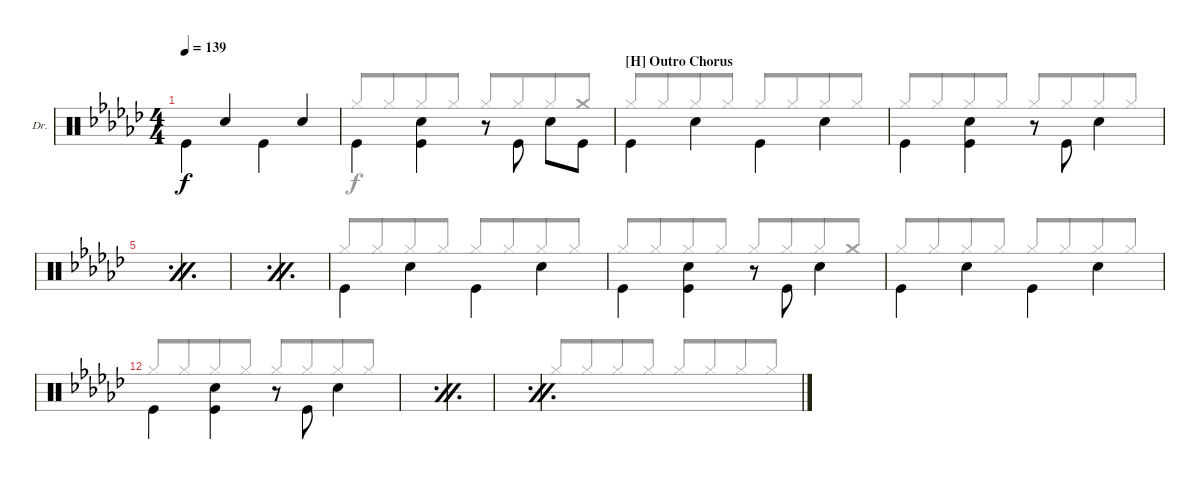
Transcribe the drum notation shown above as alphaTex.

\bracketExtendMode groupsimilarinstruments
\firstSystemTrackNameOrientation horizontal
\otherSystemsTrackNameOrientation horizontal
\defaultBarNumberDisplay FirstOfSystem
\track ("Drums" "Dr.") {instrument percussion}
\staff {score}
\articulation defaults
\voice
\ts (4 4)
\tempo 139
\clef neutral
\ks gb "Kick (hit)".4{dy f beam invert} "Snare (hit) 2".4{beam invert} "Kick (hit)".4{beam invert} "Snare (hit) 2".4{beam invert}
|
"Kick (hit)".4{beam invert} ("Snare (hit) 2" "Kick (hit)").4{beam invert} r.8 "Kick (hit)".8{beam invert} "Snare (hit) 2".8{beam invert} "Kick (hit)".8 |
\section ("H" "Outro Chorus")
"Kick (hit)".4{beam invert} "Snare (hit) 2".4{beam invert} "Kick (hit)".4{beam invert} "Snare (hit) 2".4{beam invert} |
"Kick (hit)".4{beam invert} ("Kick (hit)" "Snare (hit) 2").4{beam invert} r.8 "Kick (hit)".8{beam invert} "Snare (hit) 2".4{beam invert} |
\simile firstofdouble
|
\simile secondofdouble
|
\simile firstofdouble
|
\simile secondofdouble
|
\simile none "Kick (hit)".4{beam invert} "Snare (hit) 2".4{beam invert} "Kick (hit)".4{beam invert} "Snare (hit) 2".4{beam invert}
|
"Kick (hit)".4{beam invert} ("Kick (hit)" "Snare (hit) 2").4{beam invert} r.8 "Kick (hit)".8{beam invert} "Snare (hit) 2".4{beam invert} |
"Kick (hit)".4{beam invert} "Snare (hit) 2".4{beam invert} "Kick (hit)".4{beam invert} "Snare (hit) 2".4{beam invert} |
"Kick (hit)".4{beam invert} ("Kick (hit)" "Snare (hit) 2").4{beam invert} r.8 "Kick (hit)".8{beam invert} "Snare (hit) 2".4{beam invert} |
\simile firstofdouble
|
\simile secondofdouble
|
\simile firstofdouble
|
\simile secondofdouble
\voice
\clef neutral
\ottava regular
\simile none
\ks gb "Hi-Hat (closed)".8{dy f beam invert} "Hi-Hat (closed)".8{beam merge} "Hi-Hat (closed)".8 "Hi-Hat (closed)".8 "Hi-Hat (closed)".8{beam invert} "Hi-Hat (closed)".8{beam merge} "Hi-Hat (closed)".8 "Hi-Hat (closed)".8
|
"Hi-Hat (closed)".8{beam invert beam merge} "Hi-Hat (closed)".8{beam merge} "Hi-Hat (closed)".8 "Hi-Hat (closed)".8 "Hi-Hat (closed)".8{beam invert} "Hi-Hat (closed)".8{beam merge} "Hi-Hat (closed)".8{beam merge} "Crash medium (hit)".8 |
"Hi-Hat (closed)".8{beam invert} "Hi-Hat (closed)".8{beam merge} "Hi-Hat (closed)".8 "Hi-Hat (closed)".8 "Hi-Hat (closed)".8{beam invert} "Hi-Hat (closed)".8{beam merge} "Hi-Hat (closed)".8 "Hi-Hat (closed)".8 |
"Hi-Hat (closed)".8{beam invert} "Hi-Hat (closed)".8{beam merge} "Hi-Hat (closed)".8 "Hi-Hat (closed)".8 "Hi-Hat (closed)".8{beam invert beam merge} "Hi-Hat (closed)".8{beam merge} "Hi-Hat (closed)".8{beam merge} "Hi-Hat (closed)".8 |
\simile firstofdouble
|
\simile secondofdouble
|
\simile firstofdouble
|
\simile secondofdouble
|
\simile none "Hi-Hat (closed)".8{beam invert} "Hi-Hat (closed)".8{beam merge} "Hi-Hat (closed)".8 "Hi-Hat (closed)".8 "Hi-Hat (closed)".8{beam invert} "Hi-Hat (closed)".8{beam merge} "Hi-Hat (closed)".8 "Hi-Hat (closed)".8
|
"Hi-Hat (closed)".8{beam invert beam merge} "Hi-Hat (closed)".8{beam merge} "Hi-Hat (closed)".8 "Hi-Hat (closed)".8 "Hi-Hat (closed)".8{beam invert} "Hi-Hat (closed)".8{beam merge} "Hi-Hat (closed)".8{beam merge} "Crash medium (hit)".8 |
"Hi-Hat (closed)".8{beam invert} "Hi-Hat (closed)".8{beam merge} "Hi-Hat (closed)".8 "Hi-Hat (closed)".8 "Hi-Hat (closed)".8{beam invert} "Hi-Hat (closed)".8{beam merge} "Hi-Hat (closed)".8 "Hi-Hat (closed)".8 |
"Hi-Hat (closed)".8{beam invert} "Hi-Hat (closed)".8{beam merge} "Hi-Hat (closed)".8 "Hi-Hat (closed)".8 "Hi-Hat (closed)".8{beam invert beam merge} "Hi-Hat (closed)".8{beam merge} "Hi-Hat (closed)".8{beam merge} "Hi-Hat (closed)".8 |
\simile firstofdouble
|
\simile secondofdouble
|
\simile firstofdouble
|
\simile secondofdouble
